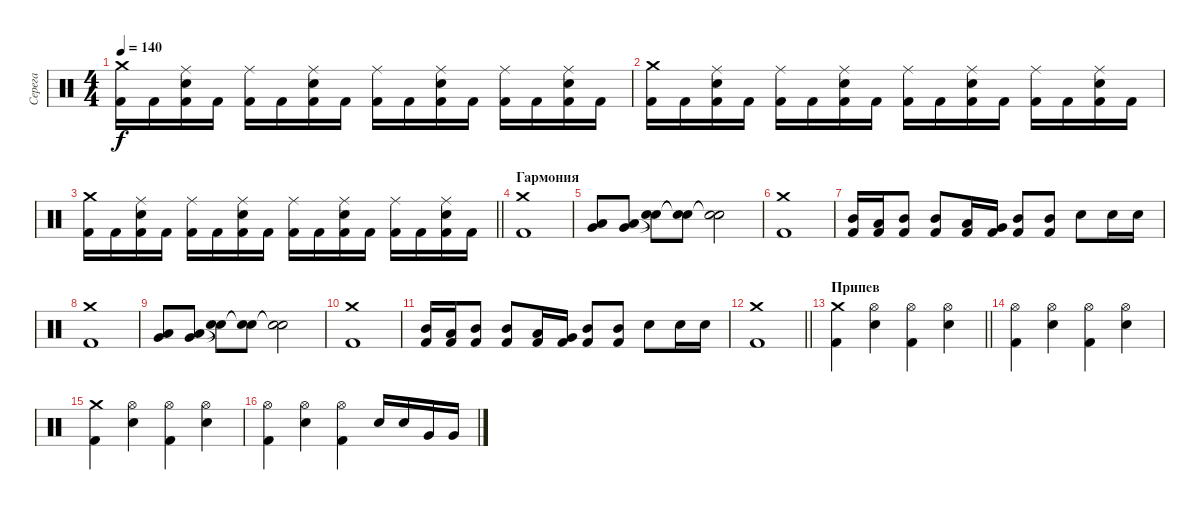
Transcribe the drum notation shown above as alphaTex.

\track ("Серега" "Серега") {instrument percussion}
\staff {score}
\articulation defaults
\ts (4 4)
\tempo 140
\clef neutral
\ks c
("Kick (hit) 2" "Crash medium (hit)").16{dy f} "Kick (hit) 2".16 ("Kick (hit) 2" "Electric Snare (hit)" "Ride (middle)").16 "Kick (hit) 2".16 ("Kick (hit) 2" "Ride (middle)").16 "Kick (hit) 2".16 ("Kick (hit) 2" "Electric Snare (hit)" "Ride (middle)").16 "Kick (hit) 2".16 ("Kick (hit) 2" "Ride (middle)").16 "Kick (hit) 2".16 ("Kick (hit) 2" "Electric Snare (hit)" "Ride (middle)").16 "Kick (hit) 2".16 ("Kick (hit) 2" "Ride (middle)").16 "Kick (hit) 2".16 ("Kick (hit) 2" "Electric Snare (hit)" "Ride (middle)").16 "Kick (hit) 2".16 |
("Kick (hit) 2" "Crash medium (hit)").16 "Kick (hit) 2".16 ("Kick (hit) 2" "Electric Snare (hit)" "Ride (middle)").16 "Kick (hit) 2".16 ("Kick (hit) 2" "Ride (middle)").16 "Kick (hit) 2".16 ("Kick (hit) 2" "Electric Snare (hit)" "Ride (middle)").16 "Kick (hit) 2".16 ("Kick (hit) 2" "Ride (middle)").16 "Kick (hit) 2".16 ("Kick (hit) 2" "Electric Snare (hit)" "Ride (middle)").16 "Kick (hit) 2".16 ("Kick (hit) 2" "Ride (middle)").16 "Kick (hit) 2".16 ("Kick (hit) 2" "Electric Snare (hit)" "Ride (middle)").16 "Kick (hit) 2".16 |
\barLineRight lightlight
("Kick (hit) 2" "Crash medium (hit)").16 "Kick (hit) 2".16 ("Kick (hit) 2" "Electric Snare (hit)" "Ride (middle)").16 "Kick (hit) 2".16 ("Kick (hit) 2" "Ride (middle)").16 "Kick (hit) 2".16 ("Kick (hit) 2" "Electric Snare (hit)" "Ride (middle)").16 "Kick (hit) 2".16 ("Kick (hit) 2" "Ride (middle)").16 "Kick (hit) 2".16 ("Kick (hit) 2" "Electric Snare (hit)" "Ride (middle)").16 "Kick (hit) 2".16 ("Kick (hit) 2" "Ride (middle)").16 "Kick (hit) 2".16 ("Kick (hit) 2" "Electric Snare (hit)" "Ride (middle)").16 "Kick (hit) 2".16 |
\section ("" "Гармония")
("Kick (hit) 2" "Crash medium (hit)").1 |
("Very Low Tom (hit)" "Low Floor Tom (hit)").8 ("Very Low Tom (hit)" "Low Floor Tom (hit)").8 ("Snare (hit)"{t} "Snare (hit)"{t}).8 ("Snare (hit)"{t} "Snare (hit)"{t}).8 ("Snare (hit)"{t} "Snare (hit)"{t}).2 |
("Crash medium (hit)" "Kick (hit) 2").1 |
("Kick (hit) 2" "Mid Tom (hit)").16 ("Kick (hit) 2" "Low Tom (hit)").16 ("Kick (hit) 2" "Mid Tom (hit)").8 ("Kick (hit) 2" "Mid Tom (hit)").8 ("Kick (hit) 2" "Low Tom (hit)").16 ("Kick (hit) 2" "Very Low Tom (hit)").16 ("Kick (hit) 2" "Mid Tom (hit)").8 ("Kick (hit) 2" "Mid Tom (hit)").8 "Electric Snare (hit)".8 "Electric Snare (hit)".16 "Electric Snare (hit)".16 |
("Kick (hit) 2" "Crash medium (hit)").1 |
("Very Low Tom (hit)" "Low Floor Tom (hit)").8 ("Very Low Tom (hit)" "Low Floor Tom (hit)").8 ("Snare (hit)"{t} "Snare (hit)"{t}).8 ("Snare (hit)"{t} "Snare (hit)"{t}).8 ("Snare (hit)"{t} "Snare (hit)"{t}).2 |
("Crash medium (hit)" "Kick (hit) 2").1 |
("Kick (hit) 2" "Mid Tom (hit)").16 ("Kick (hit) 2" "Low Tom (hit)").16 ("Kick (hit) 2" "Mid Tom (hit)").8 ("Kick (hit) 2" "Mid Tom (hit)").8 ("Kick (hit) 2" "Low Tom (hit)").16 ("Kick (hit) 2" "Very Low Tom (hit)").16 ("Kick (hit) 2" "Mid Tom (hit)").8 ("Kick (hit) 2" "Mid Tom (hit)").8 "Electric Snare (hit)".8 "Electric Snare (hit)".16 "Electric Snare (hit)".16 |
\barLineRight lightlight
("Crash medium (hit)" "Kick (hit) 2").1 |
\section ("" "Припев")
\barLineRight lightlight
("Crash medium (hit)" "Kick (hit) 2").4 ("Hi-Hat (open)" "Electric Snare (hit)").4 ("Hi-Hat (open)" "Kick (hit) 2").4 ("Hi-Hat (open)" "Electric Snare (hit)").4 |
("Hi-Hat (open)" "Kick (hit) 2").4 ("Hi-Hat (open)" "Electric Snare (hit)").4 ("Hi-Hat (open)" "Kick (hit) 2").4 ("Hi-Hat (open)" "Electric Snare (hit)").4 |
("Crash medium (hit)" "Kick (hit) 2").4 ("Hi-Hat (open)" "Electric Snare (hit)").4 ("Hi-Hat (open)" "Kick (hit) 2").4 ("Hi-Hat (open)" "Electric Snare (hit)").4 |
("Hi-Hat (open)" "Kick (hit) 2").4 ("Hi-Hat (open)" "Electric Snare (hit)").4 ("Hi-Hat (open)" "Kick (hit) 2").4 "Electric Snare (hit)".16 "Electric Snare (hit)".16 "Very Low Tom (hit)".16 "Very Low Tom (hit)".16
